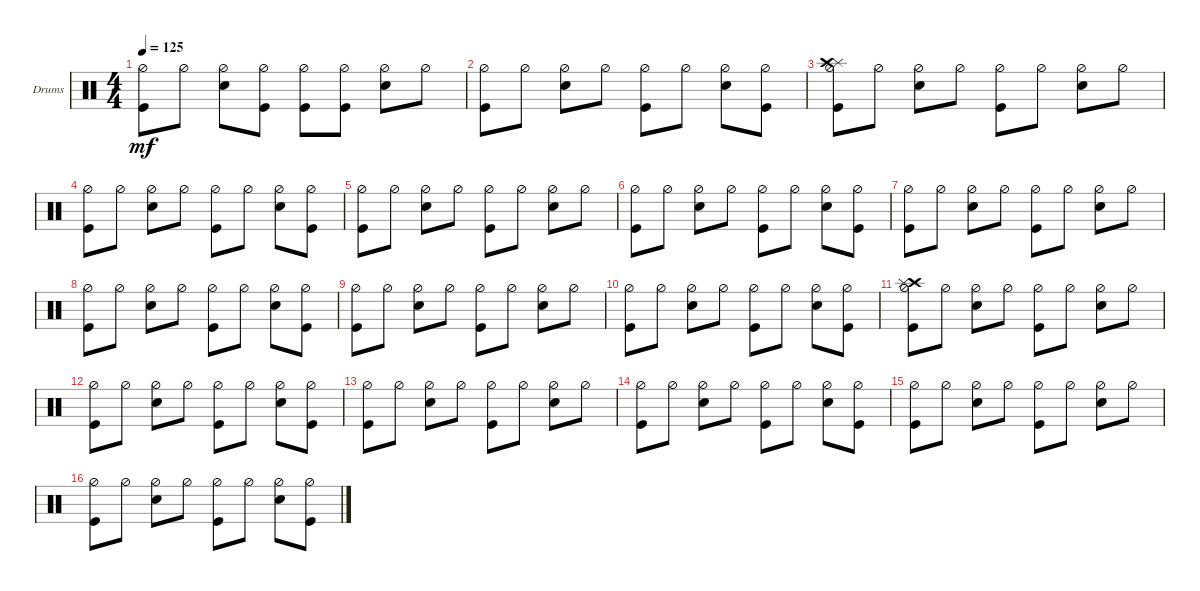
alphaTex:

\defaultSystemsLayout 4
\bracketExtendMode groupsimilarinstruments
\firstSystemTrackNameOrientation horizontal
\otherSystemsTrackNameOrientation horizontal
\track ("Drumkit" "Drums") {instrument percussion}
\staff {score}
\articulation defaults
\ts (4 4)
\tempo 125
\clef neutral
\ks c
("Kick (hit)" "Hi-Hat (half)").8{dy mf} "Hi-Hat (half)".8 ("Hi-Hat (half)" "Snare (hit) 2").8 ("Hi-Hat (half)" "Kick (hit)").8 ("Kick (hit)" "Hi-Hat (half)").8 ("Hi-Hat (half)" "Kick (hit)").8 ("Hi-Hat (half)" "Snare (hit) 2").8 "Hi-Hat (half)".8 |
("Kick (hit)" "Hi-Hat (half)").8 "Hi-Hat (half)".8 ("Hi-Hat (half)" "Snare (hit) 2").8 "Hi-Hat (half)".8 ("Kick (hit)" "Hi-Hat (half)").8 "Hi-Hat (half)".8 ("Hi-Hat (half)" "Snare (hit) 2").8 ("Hi-Hat (half)" "Kick (hit)").8 |
("Kick (hit)" "Hi-Hat (half)" "Splash (hit)" "Crash high (hit)").8 "Hi-Hat (half)".8 ("Hi-Hat (half)" "Snare (hit) 2").8 "Hi-Hat (half)".8 ("Kick (hit)" "Hi-Hat (half)").8 "Hi-Hat (half)".8 ("Hi-Hat (half)" "Snare (hit) 2").8 "Hi-Hat (half)".8 |
("Kick (hit)" "Hi-Hat (half)").8 "Hi-Hat (half)".8 ("Hi-Hat (half)" "Snare (hit) 2").8 "Hi-Hat (half)".8 ("Kick (hit)" "Hi-Hat (half)").8 "Hi-Hat (half)".8 ("Hi-Hat (half)" "Snare (hit) 2").8 ("Hi-Hat (half)" "Kick (hit)").8 |
("Kick (hit)" "Hi-Hat (half)").8 "Hi-Hat (half)".8 ("Hi-Hat (half)" "Snare (hit) 2").8 "Hi-Hat (half)".8 ("Kick (hit)" "Hi-Hat (half)").8 "Hi-Hat (half)".8 ("Hi-Hat (half)" "Snare (hit) 2").8 "Hi-Hat (half)".8 |
("Kick (hit)" "Hi-Hat (half)").8 "Hi-Hat (half)".8 ("Hi-Hat (half)" "Snare (hit) 2").8 "Hi-Hat (half)".8 ("Kick (hit)" "Hi-Hat (half)").8 "Hi-Hat (half)".8 ("Hi-Hat (half)" "Snare (hit) 2").8 ("Hi-Hat (half)" "Kick (hit)").8 |
("Kick (hit)" "Hi-Hat (half)").8 "Hi-Hat (half)".8 ("Hi-Hat (half)" "Snare (hit) 2").8 "Hi-Hat (half)".8 ("Kick (hit)" "Hi-Hat (half)").8 "Hi-Hat (half)".8 ("Hi-Hat (half)" "Snare (hit) 2").8 "Hi-Hat (half)".8 |
("Kick (hit)" "Hi-Hat (half)").8 "Hi-Hat (half)".8 ("Hi-Hat (half)" "Snare (hit) 2").8 "Hi-Hat (half)".8 ("Kick (hit)" "Hi-Hat (half)").8 "Hi-Hat (half)".8 ("Hi-Hat (half)" "Snare (hit) 2").8 ("Hi-Hat (half)" "Kick (hit)").8 |
("Kick (hit)" "Hi-Hat (half)").8 "Hi-Hat (half)".8 ("Hi-Hat (half)" "Snare (hit) 2").8 "Hi-Hat (half)".8 ("Kick (hit)" "Hi-Hat (half)").8 "Hi-Hat (half)".8 ("Hi-Hat (half)" "Snare (hit) 2").8 "Hi-Hat (half)".8 |
("Kick (hit)" "Hi-Hat (half)").8 "Hi-Hat (half)".8 ("Hi-Hat (half)" "Snare (hit) 2").8 "Hi-Hat (half)".8 ("Kick (hit)" "Hi-Hat (half)").8 "Hi-Hat (half)".8 ("Hi-Hat (half)" "Snare (hit) 2").8 ("Hi-Hat (half)" "Kick (hit)").8 |
("Kick (hit)" "Hi-Hat (half)" "Crash high (hit)" "Splash (hit)").8 "Hi-Hat (half)".8 ("Hi-Hat (half)" "Snare (hit) 2").8 "Hi-Hat (half)".8 ("Kick (hit)" "Hi-Hat (half)").8 "Hi-Hat (half)".8 ("Hi-Hat (half)" "Snare (hit) 2").8 "Hi-Hat (half)".8 |
("Kick (hit)" "Hi-Hat (half)").8 "Hi-Hat (half)".8 ("Hi-Hat (half)" "Snare (hit) 2").8 "Hi-Hat (half)".8 ("Kick (hit)" "Hi-Hat (half)").8 "Hi-Hat (half)".8 ("Hi-Hat (half)" "Snare (hit) 2").8 ("Hi-Hat (half)" "Kick (hit)").8 |
("Kick (hit)" "Hi-Hat (half)").8 "Hi-Hat (half)".8 ("Hi-Hat (half)" "Snare (hit) 2").8 "Hi-Hat (half)".8 ("Kick (hit)" "Hi-Hat (half)").8 "Hi-Hat (half)".8 ("Hi-Hat (half)" "Snare (hit) 2").8 "Hi-Hat (half)".8 |
("Kick (hit)" "Hi-Hat (half)").8 "Hi-Hat (half)".8 ("Hi-Hat (half)" "Snare (hit) 2").8 "Hi-Hat (half)".8 ("Kick (hit)" "Hi-Hat (half)").8 "Hi-Hat (half)".8 ("Hi-Hat (half)" "Snare (hit) 2").8 ("Hi-Hat (half)" "Kick (hit)").8 |
("Kick (hit)" "Hi-Hat (half)").8 "Hi-Hat (half)".8 ("Hi-Hat (half)" "Snare (hit) 2").8 "Hi-Hat (half)".8 ("Kick (hit)" "Hi-Hat (half)").8 "Hi-Hat (half)".8 ("Hi-Hat (half)" "Snare (hit) 2").8 "Hi-Hat (half)".8 |
("Kick (hit)" "Hi-Hat (half)").8 "Hi-Hat (half)".8 ("Hi-Hat (half)" "Snare (hit) 2").8 "Hi-Hat (half)".8 ("Kick (hit)" "Hi-Hat (half)").8 "Hi-Hat (half)".8 ("Hi-Hat (half)" "Snare (hit) 2").8 ("Hi-Hat (half)" "Kick (hit)").8
